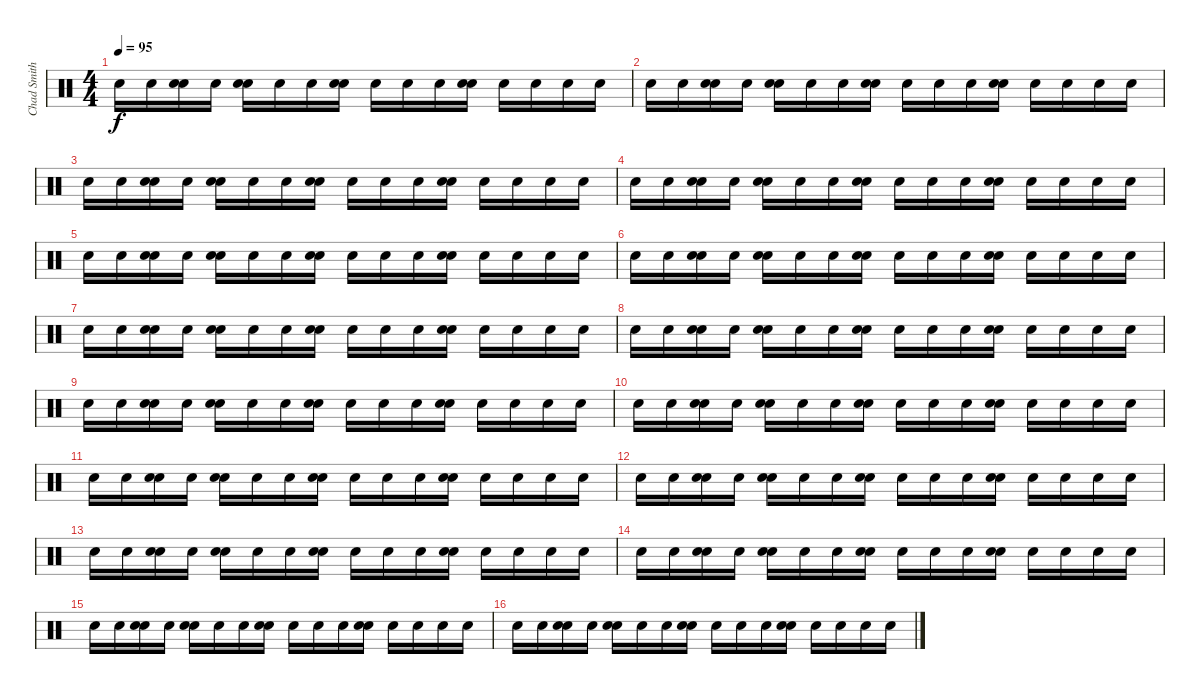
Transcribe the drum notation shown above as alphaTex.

\track ("Chad Smith/Drums" "Chad Smith") {instrument percussion}
\staff {score}
\articulation defaults
\ts (4 4)
\tempo 95
\clef neutral
\ks c "Electric Snare (hit)".16{dy f} "Electric Snare (hit)".16
("Snare (hit) 2" "Electric Snare (hit)").16 "Electric Snare (hit)".16 ("Snare (hit) 2" "Electric Snare (hit)").16 "Electric Snare (hit)".16 "Electric Snare (hit)".16 ("Snare (hit) 2" "Electric Snare (hit)").16 "Electric Snare (hit)".16 "Electric Snare (hit)".16 "Electric Snare (hit)".16 ("Snare (hit) 2" "Electric Snare (hit)").16 "Electric Snare (hit)".16 "Electric Snare (hit)".16 "Electric Snare (hit)".16 "Electric Snare (hit)".16 |
"Electric Snare (hit)".16 "Electric Snare (hit)".16 ("Snare (hit) 2" "Electric Snare (hit)").16 "Electric Snare (hit)".16 ("Snare (hit) 2" "Electric Snare (hit)").16 "Electric Snare (hit)".16 "Electric Snare (hit)".16 ("Snare (hit) 2" "Electric Snare (hit)").16 "Electric Snare (hit)".16 "Electric Snare (hit)".16 "Electric Snare (hit)".16 ("Snare (hit) 2" "Electric Snare (hit)").16 "Electric Snare (hit)".16 "Electric Snare (hit)".16 "Electric Snare (hit)".16 "Electric Snare (hit)".16 |
"Electric Snare (hit)".16 "Electric Snare (hit)".16 ("Snare (hit) 2" "Electric Snare (hit)").16 "Electric Snare (hit)".16 ("Snare (hit) 2" "Electric Snare (hit)").16 "Electric Snare (hit)".16 "Electric Snare (hit)".16 ("Snare (hit) 2" "Electric Snare (hit)").16 "Electric Snare (hit)".16 "Electric Snare (hit)".16 "Electric Snare (hit)".16 ("Snare (hit) 2" "Electric Snare (hit)").16 "Electric Snare (hit)".16 "Electric Snare (hit)".16 "Electric Snare (hit)".16 "Electric Snare (hit)".16 |
"Electric Snare (hit)".16 "Electric Snare (hit)".16 ("Snare (hit) 2" "Electric Snare (hit)").16 "Electric Snare (hit)".16 ("Snare (hit) 2" "Electric Snare (hit)").16 "Electric Snare (hit)".16 "Electric Snare (hit)".16 ("Snare (hit) 2" "Electric Snare (hit)").16 "Electric Snare (hit)".16 "Electric Snare (hit)".16 "Electric Snare (hit)".16 ("Snare (hit) 2" "Electric Snare (hit)").16 "Electric Snare (hit)".16 "Electric Snare (hit)".16 "Electric Snare (hit)".16 "Electric Snare (hit)".16 |
"Electric Snare (hit)".16 "Electric Snare (hit)".16 ("Snare (hit) 2" "Electric Snare (hit)").16 "Electric Snare (hit)".16 ("Snare (hit) 2" "Electric Snare (hit)").16 "Electric Snare (hit)".16 "Electric Snare (hit)".16 ("Snare (hit) 2" "Electric Snare (hit)").16 "Electric Snare (hit)".16 "Electric Snare (hit)".16 "Electric Snare (hit)".16 ("Snare (hit) 2" "Electric Snare (hit)").16 "Electric Snare (hit)".16 "Electric Snare (hit)".16 "Electric Snare (hit)".16 "Electric Snare (hit)".16 |
"Electric Snare (hit)".16 "Electric Snare (hit)".16 ("Snare (hit) 2" "Electric Snare (hit)").16 "Electric Snare (hit)".16 ("Snare (hit) 2" "Electric Snare (hit)").16 "Electric Snare (hit)".16 "Electric Snare (hit)".16 ("Snare (hit) 2" "Electric Snare (hit)").16 "Electric Snare (hit)".16 "Electric Snare (hit)".16 "Electric Snare (hit)".16 ("Snare (hit) 2" "Electric Snare (hit)").16 "Electric Snare (hit)".16 "Electric Snare (hit)".16 "Electric Snare (hit)".16 "Electric Snare (hit)".16 |
"Electric Snare (hit)".16 "Electric Snare (hit)".16 ("Snare (hit) 2" "Electric Snare (hit)").16 "Electric Snare (hit)".16 ("Snare (hit) 2" "Electric Snare (hit)").16 "Electric Snare (hit)".16 "Electric Snare (hit)".16 ("Snare (hit) 2" "Electric Snare (hit)").16 "Electric Snare (hit)".16 "Electric Snare (hit)".16 "Electric Snare (hit)".16 ("Snare (hit) 2" "Electric Snare (hit)").16 "Electric Snare (hit)".16 "Electric Snare (hit)".16 "Electric Snare (hit)".16 "Electric Snare (hit)".16 |
"Electric Snare (hit)".16 "Electric Snare (hit)".16 ("Snare (hit) 2" "Electric Snare (hit)").16 "Electric Snare (hit)".16 ("Snare (hit) 2" "Electric Snare (hit)").16 "Electric Snare (hit)".16 "Electric Snare (hit)".16 ("Snare (hit) 2" "Electric Snare (hit)").16 "Electric Snare (hit)".16 "Electric Snare (hit)".16 "Electric Snare (hit)".16 ("Snare (hit) 2" "Electric Snare (hit)").16 "Electric Snare (hit)".16 "Electric Snare (hit)".16 "Electric Snare (hit)".16 "Electric Snare (hit)".16 |
"Electric Snare (hit)".16 "Electric Snare (hit)".16 ("Snare (hit) 2" "Electric Snare (hit)").16 "Electric Snare (hit)".16 ("Snare (hit) 2" "Electric Snare (hit)").16 "Electric Snare (hit)".16 "Electric Snare (hit)".16 ("Snare (hit) 2" "Electric Snare (hit)").16 "Electric Snare (hit)".16 "Electric Snare (hit)".16 "Electric Snare (hit)".16 ("Snare (hit) 2" "Electric Snare (hit)").16 "Electric Snare (hit)".16 "Electric Snare (hit)".16 "Electric Snare (hit)".16 "Electric Snare (hit)".16 |
"Electric Snare (hit)".16 "Electric Snare (hit)".16 ("Snare (hit) 2" "Electric Snare (hit)").16 "Electric Snare (hit)".16 ("Snare (hit) 2" "Electric Snare (hit)").16 "Electric Snare (hit)".16 "Electric Snare (hit)".16 ("Snare (hit) 2" "Electric Snare (hit)").16 "Electric Snare (hit)".16 "Electric Snare (hit)".16 "Electric Snare (hit)".16 ("Snare (hit) 2" "Electric Snare (hit)").16 "Electric Snare (hit)".16 "Electric Snare (hit)".16 "Electric Snare (hit)".16 "Electric Snare (hit)".16 |
"Electric Snare (hit)".16 "Electric Snare (hit)".16 ("Snare (hit) 2" "Electric Snare (hit)").16 "Electric Snare (hit)".16 ("Snare (hit) 2" "Electric Snare (hit)").16 "Electric Snare (hit)".16 "Electric Snare (hit)".16 ("Snare (hit) 2" "Electric Snare (hit)").16 "Electric Snare (hit)".16 "Electric Snare (hit)".16 "Electric Snare (hit)".16 ("Snare (hit) 2" "Electric Snare (hit)").16 "Electric Snare (hit)".16 "Electric Snare (hit)".16 "Electric Snare (hit)".16 "Electric Snare (hit)".16 |
"Electric Snare (hit)".16 "Electric Snare (hit)".16 ("Snare (hit) 2" "Electric Snare (hit)").16 "Electric Snare (hit)".16 ("Snare (hit) 2" "Electric Snare (hit)").16 "Electric Snare (hit)".16 "Electric Snare (hit)".16 ("Snare (hit) 2" "Electric Snare (hit)").16 "Electric Snare (hit)".16 "Electric Snare (hit)".16 "Electric Snare (hit)".16 ("Snare (hit) 2" "Electric Snare (hit)").16 "Electric Snare (hit)".16 "Electric Snare (hit)".16 "Electric Snare (hit)".16 "Electric Snare (hit)".16 |
"Electric Snare (hit)".16 "Electric Snare (hit)".16 ("Snare (hit) 2" "Electric Snare (hit)").16 "Electric Snare (hit)".16 ("Snare (hit) 2" "Electric Snare (hit)").16 "Electric Snare (hit)".16 "Electric Snare (hit)".16 ("Snare (hit) 2" "Electric Snare (hit)").16 "Electric Snare (hit)".16 "Electric Snare (hit)".16 "Electric Snare (hit)".16 ("Snare (hit) 2" "Electric Snare (hit)").16 "Electric Snare (hit)".16 "Electric Snare (hit)".16 "Electric Snare (hit)".16 "Electric Snare (hit)".16 |
"Electric Snare (hit)".16 "Electric Snare (hit)".16 ("Snare (hit) 2" "Electric Snare (hit)").16 "Electric Snare (hit)".16 ("Snare (hit) 2" "Electric Snare (hit)").16 "Electric Snare (hit)".16 "Electric Snare (hit)".16 ("Snare (hit) 2" "Electric Snare (hit)").16 "Electric Snare (hit)".16 "Electric Snare (hit)".16 "Electric Snare (hit)".16 ("Snare (hit) 2" "Electric Snare (hit)").16 "Electric Snare (hit)".16 "Electric Snare (hit)".16 "Electric Snare (hit)".16 "Electric Snare (hit)".16 |
"Electric Snare (hit)".16 "Electric Snare (hit)".16 ("Snare (hit) 2" "Electric Snare (hit)").16 "Electric Snare (hit)".16 ("Snare (hit) 2" "Electric Snare (hit)").16 "Electric Snare (hit)".16 "Electric Snare (hit)".16 ("Snare (hit) 2" "Electric Snare (hit)").16 "Electric Snare (hit)".16 "Electric Snare (hit)".16 "Electric Snare (hit)".16 ("Snare (hit) 2" "Electric Snare (hit)").16 "Electric Snare (hit)".16 "Electric Snare (hit)".16 "Electric Snare (hit)".16 "Electric Snare (hit)".16 |
"Electric Snare (hit)".16 "Electric Snare (hit)".16 ("Snare (hit) 2" "Electric Snare (hit)").16 "Electric Snare (hit)".16 ("Snare (hit) 2" "Electric Snare (hit)").16 "Electric Snare (hit)".16 "Electric Snare (hit)".16 ("Snare (hit) 2" "Electric Snare (hit)").16 "Electric Snare (hit)".16 "Electric Snare (hit)".16 "Electric Snare (hit)".16 ("Snare (hit) 2" "Electric Snare (hit)").16 "Electric Snare (hit)".16 "Electric Snare (hit)".16 "Electric Snare (hit)".16 "Electric Snare (hit)".16
